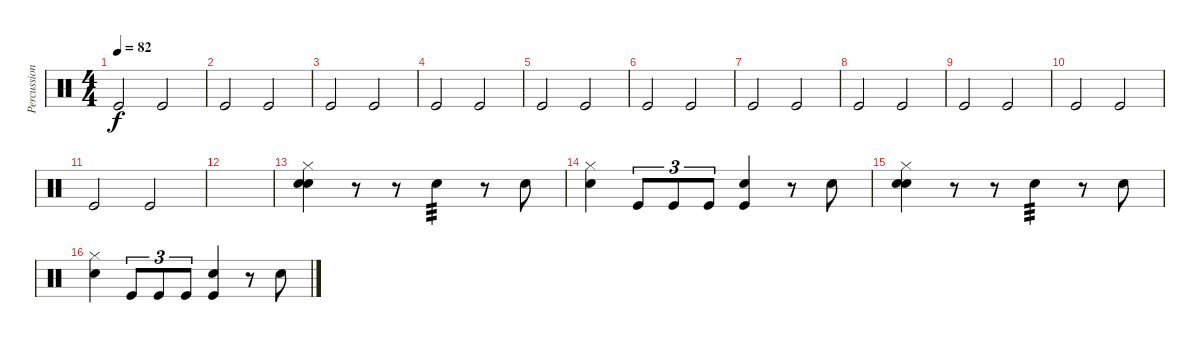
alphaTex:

\track ("Percussion" "Percussion") {instrument percussion}
\staff {score}
\articulation defaults
\ts (4 4)
\tempo 82
\clef neutral
\ks c "Kick (hit)".2{dy f} "Kick (hit)".2
|
"Kick (hit)".2 "Kick (hit)".2 |
"Kick (hit)".2 "Kick (hit)".2 |
"Kick (hit)".2 "Kick (hit)".2 |
"Kick (hit)".2 "Kick (hit)".2 |
"Kick (hit)".2 "Kick (hit)".2 |
"Kick (hit)".2 "Kick (hit)".2 |
"Kick (hit)".2 "Kick (hit)".2 |
"Kick (hit)".2 "Kick (hit)".2 |
"Kick (hit)".2 "Kick (hit)".2 |
"Kick (hit)".2 "Kick (hit)".2 |
|
("Snare (hit) 2" "Hi-Hat (closed)" "Electric Snare (hit)").4{volume 11} r.8 r.8 "Snare (hit) 2".4{tp 3} r.8 "Snare (hit) 2".8 |
("Snare (hit) 2" "Hi-Hat (closed)").4 "Kick (hit)".8{tu (3 2)} "Kick (hit)".8{tu (3 2)} "Kick (hit)".8{tu (3 2)} ("Snare (hit) 2" "Kick (hit)").4 r.8 "Snare (hit) 2".8 |
("Snare (hit) 2" "Hi-Hat (closed)" "Electric Snare (hit)").4 r.8 r.8 "Snare (hit) 2".4{tp 3} r.8 "Snare (hit) 2".8 |
("Snare (hit) 2" "Hi-Hat (closed)").4 "Kick (hit)".8{tu (3 2)} "Kick (hit)".8{tu (3 2)} "Kick (hit)".8{tu (3 2)} ("Snare (hit) 2" "Kick (hit)").4 r.8 "Snare (hit) 2".8
